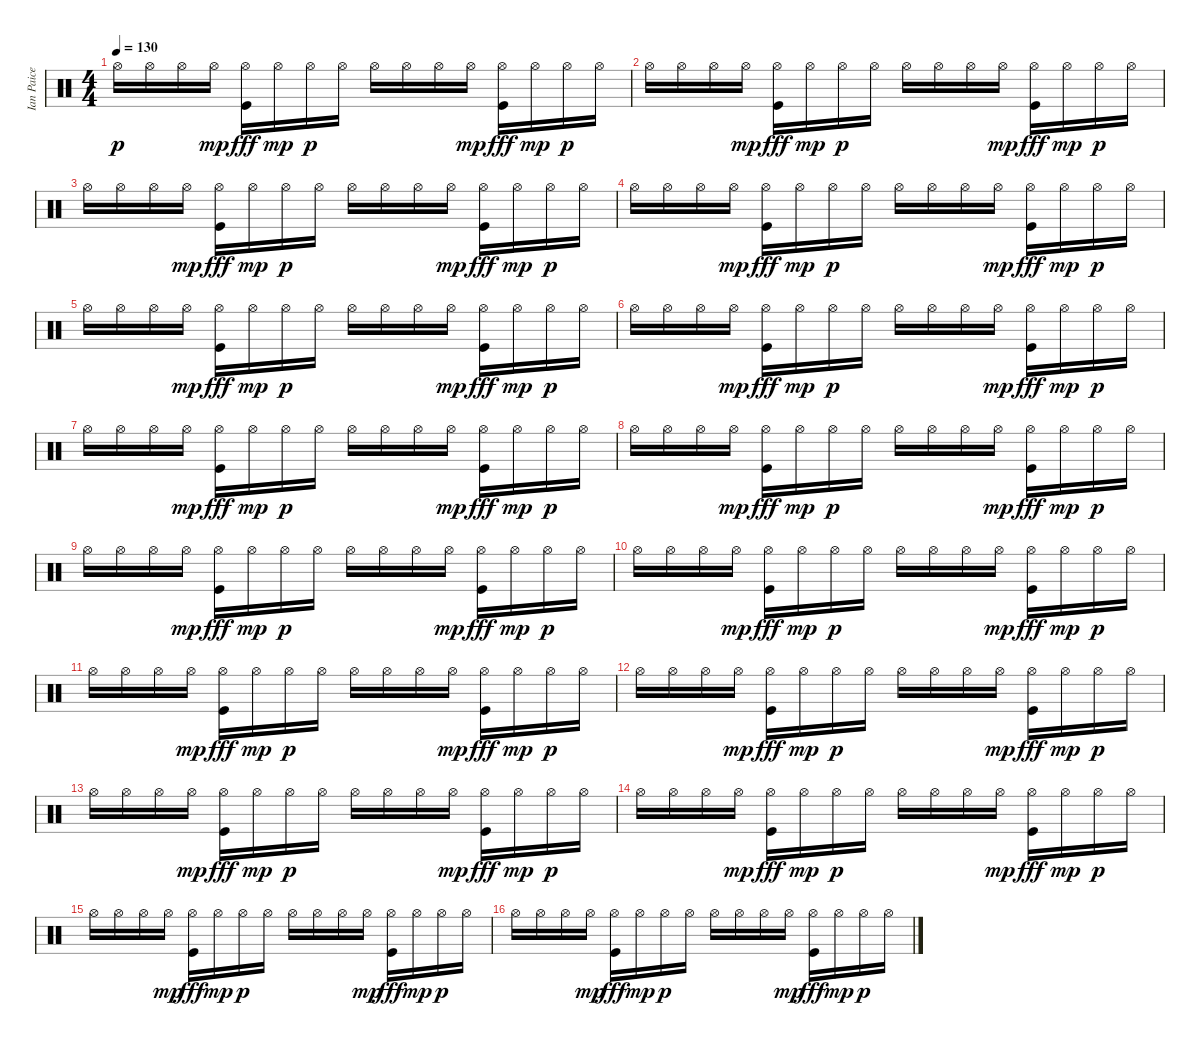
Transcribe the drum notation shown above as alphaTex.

\track ("Ian Paice - Drums" "Ian Paice ") {instrument percussion}
\staff {score}
\articulation defaults
\ts (4 4)
\tempo 130
\clef neutral
\ks c "Hi-Hat (open)".16{dy p} "Hi-Hat (open)".16 "Hi-Hat (open)".16 "Hi-Hat (open)".16{dy mp}
("Hi-Hat (open)" "Kick (hit)").16{dy fff} "Hi-Hat (open)".16{dy mp} "Hi-Hat (open)".16{dy p} "Hi-Hat (open)".16 "Hi-Hat (open)".16 "Hi-Hat (open)".16 "Hi-Hat (open)".16 "Hi-Hat (open)".16{dy mp} ("Hi-Hat (open)" "Kick (hit)").16{dy fff} "Hi-Hat (open)".16{dy mp} "Hi-Hat (open)".16{dy p} "Hi-Hat (open)".16 |
"Hi-Hat (open)".16 "Hi-Hat (open)".16 "Hi-Hat (open)".16 "Hi-Hat (open)".16{dy mp} ("Hi-Hat (open)" "Kick (hit)").16{dy fff} "Hi-Hat (open)".16{dy mp} "Hi-Hat (open)".16{dy p} "Hi-Hat (open)".16 "Hi-Hat (open)".16 "Hi-Hat (open)".16 "Hi-Hat (open)".16 "Hi-Hat (open)".16{dy mp} ("Hi-Hat (open)" "Kick (hit)").16{dy fff} "Hi-Hat (open)".16{dy mp} "Hi-Hat (open)".16{dy p} "Hi-Hat (open)".16 |
"Hi-Hat (open)".16 "Hi-Hat (open)".16 "Hi-Hat (open)".16 "Hi-Hat (open)".16{dy mp} ("Hi-Hat (open)" "Kick (hit)").16{dy fff} "Hi-Hat (open)".16{dy mp} "Hi-Hat (open)".16{dy p} "Hi-Hat (open)".16 "Hi-Hat (open)".16 "Hi-Hat (open)".16 "Hi-Hat (open)".16 "Hi-Hat (open)".16{dy mp} ("Hi-Hat (open)" "Kick (hit)").16{dy fff} "Hi-Hat (open)".16{dy mp} "Hi-Hat (open)".16{dy p} "Hi-Hat (open)".16 |
"Hi-Hat (open)".16 "Hi-Hat (open)".16 "Hi-Hat (open)".16 "Hi-Hat (open)".16{dy mp} ("Hi-Hat (open)" "Kick (hit)").16{dy fff} "Hi-Hat (open)".16{dy mp} "Hi-Hat (open)".16{dy p} "Hi-Hat (open)".16 "Hi-Hat (open)".16 "Hi-Hat (open)".16 "Hi-Hat (open)".16 "Hi-Hat (open)".16{dy mp} ("Hi-Hat (open)" "Kick (hit)").16{dy fff} "Hi-Hat (open)".16{dy mp} "Hi-Hat (open)".16{dy p} "Hi-Hat (open)".16 |
"Hi-Hat (open)".16 "Hi-Hat (open)".16 "Hi-Hat (open)".16 "Hi-Hat (open)".16{dy mp} ("Hi-Hat (open)" "Kick (hit)").16{dy fff} "Hi-Hat (open)".16{dy mp} "Hi-Hat (open)".16{dy p} "Hi-Hat (open)".16 "Hi-Hat (open)".16 "Hi-Hat (open)".16 "Hi-Hat (open)".16 "Hi-Hat (open)".16{dy mp} ("Hi-Hat (open)" "Kick (hit)").16{dy fff} "Hi-Hat (open)".16{dy mp} "Hi-Hat (open)".16{dy p} "Hi-Hat (open)".16 |
"Hi-Hat (open)".16 "Hi-Hat (open)".16 "Hi-Hat (open)".16 "Hi-Hat (open)".16{dy mp} ("Hi-Hat (open)" "Kick (hit)").16{dy fff} "Hi-Hat (open)".16{dy mp} "Hi-Hat (open)".16{dy p} "Hi-Hat (open)".16 "Hi-Hat (open)".16 "Hi-Hat (open)".16 "Hi-Hat (open)".16 "Hi-Hat (open)".16{dy mp} ("Hi-Hat (open)" "Kick (hit)").16{dy fff} "Hi-Hat (open)".16{dy mp} "Hi-Hat (open)".16{dy p} "Hi-Hat (open)".16 |
"Hi-Hat (open)".16 "Hi-Hat (open)".16 "Hi-Hat (open)".16 "Hi-Hat (open)".16{dy mp} ("Hi-Hat (open)" "Kick (hit)").16{dy fff} "Hi-Hat (open)".16{dy mp} "Hi-Hat (open)".16{dy p} "Hi-Hat (open)".16 "Hi-Hat (open)".16 "Hi-Hat (open)".16 "Hi-Hat (open)".16 "Hi-Hat (open)".16{dy mp} ("Hi-Hat (open)" "Kick (hit)").16{dy fff} "Hi-Hat (open)".16{dy mp} "Hi-Hat (open)".16{dy p} "Hi-Hat (open)".16 |
"Hi-Hat (open)".16 "Hi-Hat (open)".16 "Hi-Hat (open)".16 "Hi-Hat (open)".16{dy mp} ("Hi-Hat (open)" "Kick (hit)").16{dy fff} "Hi-Hat (open)".16{dy mp} "Hi-Hat (open)".16{dy p} "Hi-Hat (open)".16 "Hi-Hat (open)".16 "Hi-Hat (open)".16 "Hi-Hat (open)".16 "Hi-Hat (open)".16{dy mp} ("Hi-Hat (open)" "Kick (hit)").16{dy fff} "Hi-Hat (open)".16{dy mp} "Hi-Hat (open)".16{dy p} "Hi-Hat (open)".16 |
"Hi-Hat (open)".16 "Hi-Hat (open)".16 "Hi-Hat (open)".16 "Hi-Hat (open)".16{dy mp} ("Hi-Hat (open)" "Kick (hit)").16{dy fff} "Hi-Hat (open)".16{dy mp} "Hi-Hat (open)".16{dy p} "Hi-Hat (open)".16 "Hi-Hat (open)".16 "Hi-Hat (open)".16 "Hi-Hat (open)".16 "Hi-Hat (open)".16{dy mp} ("Hi-Hat (open)" "Kick (hit)").16{dy fff} "Hi-Hat (open)".16{dy mp} "Hi-Hat (open)".16{dy p} "Hi-Hat (open)".16 |
"Hi-Hat (open)".16 "Hi-Hat (open)".16 "Hi-Hat (open)".16 "Hi-Hat (open)".16{dy mp} ("Hi-Hat (open)" "Kick (hit)").16{dy fff} "Hi-Hat (open)".16{dy mp} "Hi-Hat (open)".16{dy p} "Hi-Hat (open)".16 "Hi-Hat (open)".16 "Hi-Hat (open)".16 "Hi-Hat (open)".16 "Hi-Hat (open)".16{dy mp} ("Hi-Hat (open)" "Kick (hit)").16{dy fff} "Hi-Hat (open)".16{dy mp} "Hi-Hat (open)".16{dy p} "Hi-Hat (open)".16 |
"Hi-Hat (open)".16 "Hi-Hat (open)".16 "Hi-Hat (open)".16 "Hi-Hat (open)".16{dy mp} ("Hi-Hat (open)" "Kick (hit)").16{dy fff} "Hi-Hat (open)".16{dy mp} "Hi-Hat (open)".16{dy p} "Hi-Hat (open)".16 "Hi-Hat (open)".16 "Hi-Hat (open)".16 "Hi-Hat (open)".16 "Hi-Hat (open)".16{dy mp} ("Hi-Hat (open)" "Kick (hit)").16{dy fff} "Hi-Hat (open)".16{dy mp} "Hi-Hat (open)".16{dy p} "Hi-Hat (open)".16 |
"Hi-Hat (open)".16 "Hi-Hat (open)".16 "Hi-Hat (open)".16 "Hi-Hat (open)".16{dy mp} ("Hi-Hat (open)" "Kick (hit)").16{dy fff} "Hi-Hat (open)".16{dy mp} "Hi-Hat (open)".16{dy p} "Hi-Hat (open)".16 "Hi-Hat (open)".16 "Hi-Hat (open)".16 "Hi-Hat (open)".16 "Hi-Hat (open)".16{dy mp} ("Hi-Hat (open)" "Kick (hit)").16{dy fff} "Hi-Hat (open)".16{dy mp} "Hi-Hat (open)".16{dy p} "Hi-Hat (open)".16 |
"Hi-Hat (open)".16 "Hi-Hat (open)".16 "Hi-Hat (open)".16 "Hi-Hat (open)".16{dy mp} ("Hi-Hat (open)" "Kick (hit)").16{dy fff} "Hi-Hat (open)".16{dy mp} "Hi-Hat (open)".16{dy p} "Hi-Hat (open)".16 "Hi-Hat (open)".16 "Hi-Hat (open)".16 "Hi-Hat (open)".16 "Hi-Hat (open)".16{dy mp} ("Hi-Hat (open)" "Kick (hit)").16{dy fff} "Hi-Hat (open)".16{dy mp} "Hi-Hat (open)".16{dy p} "Hi-Hat (open)".16 |
"Hi-Hat (open)".16 "Hi-Hat (open)".16 "Hi-Hat (open)".16 "Hi-Hat (open)".16{dy mp} ("Hi-Hat (open)" "Kick (hit)").16{dy fff} "Hi-Hat (open)".16{dy mp} "Hi-Hat (open)".16{dy p} "Hi-Hat (open)".16 "Hi-Hat (open)".16 "Hi-Hat (open)".16 "Hi-Hat (open)".16 "Hi-Hat (open)".16{dy mp} ("Hi-Hat (open)" "Kick (hit)").16{dy fff} "Hi-Hat (open)".16{dy mp} "Hi-Hat (open)".16{dy p} "Hi-Hat (open)".16 |
"Hi-Hat (open)".16 "Hi-Hat (open)".16 "Hi-Hat (open)".16 "Hi-Hat (open)".16{dy mp} ("Hi-Hat (open)" "Kick (hit)").16{dy fff} "Hi-Hat (open)".16{dy mp} "Hi-Hat (open)".16{dy p} "Hi-Hat (open)".16 "Hi-Hat (open)".16 "Hi-Hat (open)".16 "Hi-Hat (open)".16 "Hi-Hat (open)".16{dy mp} ("Hi-Hat (open)" "Kick (hit)").16{dy fff} "Hi-Hat (open)".16{dy mp} "Hi-Hat (open)".16{dy p} "Hi-Hat (open)".16 |
"Hi-Hat (open)".16 "Hi-Hat (open)".16 "Hi-Hat (open)".16 "Hi-Hat (open)".16{dy mp} ("Hi-Hat (open)" "Kick (hit)").16{dy fff} "Hi-Hat (open)".16{dy mp} "Hi-Hat (open)".16{dy p} "Hi-Hat (open)".16 "Hi-Hat (open)".16 "Hi-Hat (open)".16 "Hi-Hat (open)".16 "Hi-Hat (open)".16{dy mp} ("Hi-Hat (open)" "Kick (hit)").16{dy fff} "Hi-Hat (open)".16{dy mp} "Hi-Hat (open)".16{dy p} "Hi-Hat (open)".16
